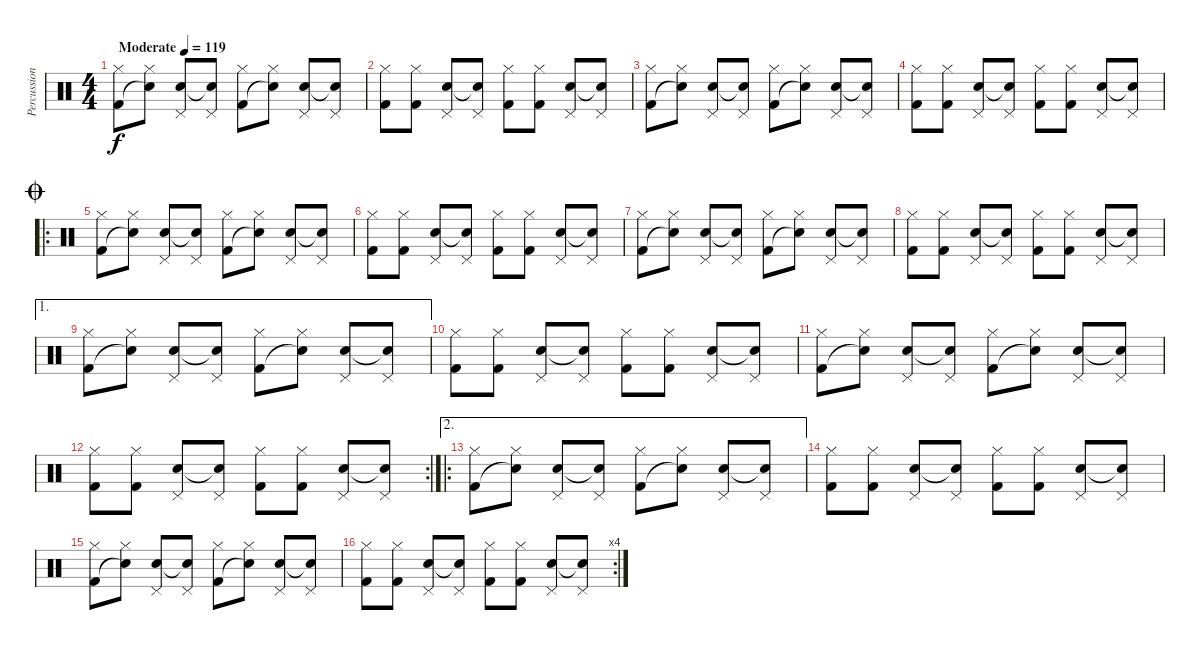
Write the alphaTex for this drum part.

\track ("Percussion" "Percussion") {instrument percussion}
\staff {score}
\articulation defaults
\ts (4 4)
\tempo (119 "Moderate")
\clef neutral
\ks c
("Hi-Hat (closed)" "Kick (hit) 2").8{dy f} ("Hi-Hat (closed)" "Snare (hit)"{t}).8 ("Pedal Hi-Hat (hit)" "Electric Snare (hit)").8 ("Pedal Hi-Hat (hit)" "Snare (hit)"{t}).8 ("Hi-Hat (closed)" "Kick (hit) 2").8 ("Hi-Hat (closed)" "Snare (hit)"{t}).8 ("Pedal Hi-Hat (hit)" "Electric Snare (hit)").8 ("Pedal Hi-Hat (hit)" "Snare (hit)"{t}).8 |
("Hi-Hat (closed)" "Kick (hit) 2").8 ("Hi-Hat (closed)" "Kick (hit) 2").8 ("Pedal Hi-Hat (hit)" "Electric Snare (hit)").8 ("Pedal Hi-Hat (hit)" "Snare (hit)"{t}).8 ("Hi-Hat (closed)" "Kick (hit) 2").8 ("Hi-Hat (closed)" "Kick (hit) 2").8 ("Pedal Hi-Hat (hit)" "Electric Snare (hit)").8 ("Pedal Hi-Hat (hit)" "Snare (hit)"{t}).8 |
("Hi-Hat (closed)" "Kick (hit) 2").8 ("Hi-Hat (closed)" "Snare (hit)"{t}).8 ("Pedal Hi-Hat (hit)" "Electric Snare (hit)").8 ("Pedal Hi-Hat (hit)" "Snare (hit)"{t}).8 ("Hi-Hat (closed)" "Kick (hit) 2").8 ("Hi-Hat (closed)" "Snare (hit)"{t}).8 ("Pedal Hi-Hat (hit)" "Electric Snare (hit)").8 ("Pedal Hi-Hat (hit)" "Snare (hit)"{t}).8 |
("Hi-Hat (closed)" "Kick (hit) 2").8 ("Hi-Hat (closed)" "Kick (hit) 2").8 ("Pedal Hi-Hat (hit)" "Electric Snare (hit)").8 ("Pedal Hi-Hat (hit)" "Snare (hit)"{t}).8 ("Hi-Hat (closed)" "Kick (hit) 2").8 ("Hi-Hat (closed)" "Kick (hit) 2").8 ("Pedal Hi-Hat (hit)" "Electric Snare (hit)").8 ("Pedal Hi-Hat (hit)" "Snare (hit)"{t}).8 |
\ro
\jump coda
("Hi-Hat (closed)" "Kick (hit) 2").8 ("Hi-Hat (closed)" "Snare (hit)"{t}).8 ("Pedal Hi-Hat (hit)" "Electric Snare (hit)").8 ("Pedal Hi-Hat (hit)" "Snare (hit)"{t}).8 ("Hi-Hat (closed)" "Kick (hit) 2").8 ("Hi-Hat (closed)" "Snare (hit)"{t}).8 ("Pedal Hi-Hat (hit)" "Electric Snare (hit)").8 ("Pedal Hi-Hat (hit)" "Snare (hit)"{t}).8 |
("Hi-Hat (closed)" "Kick (hit) 2").8 ("Hi-Hat (closed)" "Kick (hit) 2").8 ("Pedal Hi-Hat (hit)" "Electric Snare (hit)").8 ("Pedal Hi-Hat (hit)" "Snare (hit)"{t}).8 ("Hi-Hat (closed)" "Kick (hit) 2").8 ("Hi-Hat (closed)" "Kick (hit) 2").8 ("Pedal Hi-Hat (hit)" "Electric Snare (hit)").8 ("Pedal Hi-Hat (hit)" "Snare (hit)"{t}).8 |
("Hi-Hat (closed)" "Kick (hit) 2").8 ("Hi-Hat (closed)" "Snare (hit)"{t}).8 ("Pedal Hi-Hat (hit)" "Electric Snare (hit)").8 ("Pedal Hi-Hat (hit)" "Snare (hit)"{t}).8 ("Hi-Hat (closed)" "Kick (hit) 2").8 ("Hi-Hat (closed)" "Snare (hit)"{t}).8 ("Pedal Hi-Hat (hit)" "Electric Snare (hit)").8 ("Pedal Hi-Hat (hit)" "Snare (hit)"{t}).8 |
("Hi-Hat (closed)" "Kick (hit) 2").8 ("Hi-Hat (closed)" "Kick (hit) 2").8 ("Pedal Hi-Hat (hit)" "Electric Snare (hit)").8 ("Pedal Hi-Hat (hit)" "Snare (hit)"{t}).8 ("Hi-Hat (closed)" "Kick (hit) 2").8 ("Hi-Hat (closed)" "Kick (hit) 2").8 ("Pedal Hi-Hat (hit)" "Electric Snare (hit)").8 ("Pedal Hi-Hat (hit)" "Snare (hit)"{t}).8 |
\ae 1
("Hi-Hat (closed)" "Kick (hit) 2").8 ("Hi-Hat (closed)" "Snare (hit)"{t}).8 ("Pedal Hi-Hat (hit)" "Electric Snare (hit)").8 ("Pedal Hi-Hat (hit)" "Snare (hit)"{t}).8 ("Hi-Hat (closed)" "Kick (hit) 2").8 ("Hi-Hat (closed)" "Snare (hit)"{t}).8 ("Pedal Hi-Hat (hit)" "Electric Snare (hit)").8 ("Pedal Hi-Hat (hit)" "Snare (hit)"{t}).8 |
("Hi-Hat (closed)" "Kick (hit) 2").8 ("Hi-Hat (closed)" "Kick (hit) 2").8 ("Pedal Hi-Hat (hit)" "Electric Snare (hit)").8 ("Pedal Hi-Hat (hit)" "Snare (hit)"{t}).8 ("Hi-Hat (closed)" "Kick (hit) 2").8 ("Hi-Hat (closed)" "Kick (hit) 2").8 ("Pedal Hi-Hat (hit)" "Electric Snare (hit)").8 ("Pedal Hi-Hat (hit)" "Snare (hit)"{t}).8 |
("Hi-Hat (closed)" "Kick (hit) 2").8 ("Hi-Hat (closed)" "Snare (hit)"{t}).8 ("Pedal Hi-Hat (hit)" "Electric Snare (hit)").8 ("Pedal Hi-Hat (hit)" "Snare (hit)"{t}).8 ("Hi-Hat (closed)" "Kick (hit) 2").8 ("Hi-Hat (closed)" "Snare (hit)"{t}).8 ("Pedal Hi-Hat (hit)" "Electric Snare (hit)").8 ("Pedal Hi-Hat (hit)" "Snare (hit)"{t}).8 |
\rc 2
("Hi-Hat (closed)" "Kick (hit) 2").8 ("Hi-Hat (closed)" "Kick (hit) 2").8 ("Pedal Hi-Hat (hit)" "Electric Snare (hit)").8 ("Pedal Hi-Hat (hit)" "Snare (hit)"{t}).8 ("Hi-Hat (closed)" "Kick (hit) 2").8 ("Hi-Hat (closed)" "Kick (hit) 2").8 ("Pedal Hi-Hat (hit)" "Electric Snare (hit)").8 ("Pedal Hi-Hat (hit)" "Snare (hit)"{t}).8 |
\ae 2
\ro
("Hi-Hat (closed)" "Kick (hit) 2").8 ("Hi-Hat (closed)" "Snare (hit)"{t}).8 ("Pedal Hi-Hat (hit)" "Electric Snare (hit)").8 ("Pedal Hi-Hat (hit)" "Snare (hit)"{t}).8 ("Hi-Hat (closed)" "Kick (hit) 2").8 ("Hi-Hat (closed)" "Snare (hit)"{t}).8 ("Pedal Hi-Hat (hit)" "Electric Snare (hit)").8 ("Pedal Hi-Hat (hit)" "Snare (hit)"{t}).8 |
("Hi-Hat (closed)" "Kick (hit) 2").8 ("Hi-Hat (closed)" "Kick (hit) 2").8 ("Pedal Hi-Hat (hit)" "Electric Snare (hit)").8 ("Pedal Hi-Hat (hit)" "Snare (hit)"{t}).8 ("Hi-Hat (closed)" "Kick (hit) 2").8 ("Hi-Hat (closed)" "Kick (hit) 2").8 ("Pedal Hi-Hat (hit)" "Electric Snare (hit)").8 ("Pedal Hi-Hat (hit)" "Snare (hit)"{t}).8 |
("Hi-Hat (closed)" "Kick (hit) 2").8 ("Hi-Hat (closed)" "Snare (hit)"{t}).8 ("Pedal Hi-Hat (hit)" "Electric Snare (hit)").8 ("Pedal Hi-Hat (hit)" "Snare (hit)"{t}).8 ("Hi-Hat (closed)" "Kick (hit) 2").8 ("Hi-Hat (closed)" "Snare (hit)"{t}).8 ("Pedal Hi-Hat (hit)" "Electric Snare (hit)").8 ("Pedal Hi-Hat (hit)" "Snare (hit)"{t}).8 |
\rc 4
("Hi-Hat (closed)" "Kick (hit) 2").8 ("Hi-Hat (closed)" "Kick (hit) 2").8 ("Pedal Hi-Hat (hit)" "Electric Snare (hit)").8 ("Pedal Hi-Hat (hit)" "Snare (hit)"{t}).8 ("Hi-Hat (closed)" "Kick (hit) 2").8 ("Hi-Hat (closed)" "Kick (hit) 2").8 ("Pedal Hi-Hat (hit)" "Electric Snare (hit)").8 ("Pedal Hi-Hat (hit)" "Snare (hit)"{t}).8
